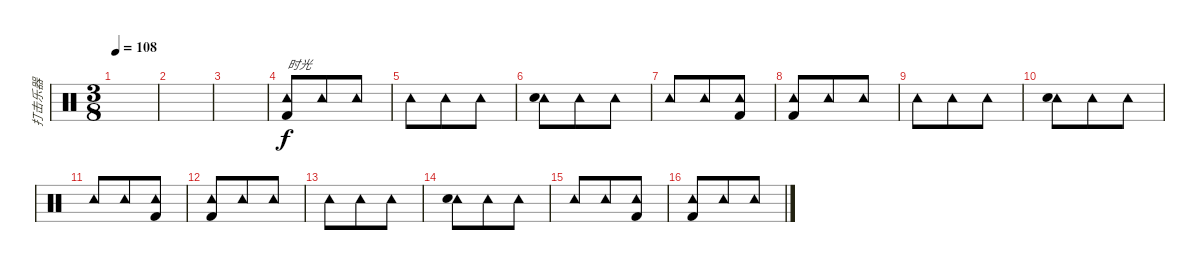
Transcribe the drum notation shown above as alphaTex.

\track ("打击乐器" "打击乐器") {instrument percussion}
\staff {score}
\articulation defaults
\ts (3 8)
\tempo 108
\clef neutral
\ks c
|
|
|
("Tambourine (hit)" "Kick (hit) 2").8{txt "时光"} "Tambourine (hit)".8 "Tambourine (hit)".8 |
"Tambourine (hit)".8 "Tambourine (hit)".8 "Tambourine (hit)".8 |
("Tambourine (hit)" "Snare (hit) 2").8 "Tambourine (hit)".8 "Tambourine (hit)".8 |
"Tambourine (hit)".8 "Tambourine (hit)".8 ("Tambourine (hit)" "Kick (hit) 2").8 |
("Tambourine (hit)" "Kick (hit) 2").8 "Tambourine (hit)".8 "Tambourine (hit)".8 |
"Tambourine (hit)".8 "Tambourine (hit)".8 "Tambourine (hit)".8 |
("Tambourine (hit)" "Snare (hit) 2").8 "Tambourine (hit)".8 "Tambourine (hit)".8 |
"Tambourine (hit)".8 "Tambourine (hit)".8 ("Tambourine (hit)" "Kick (hit) 2").8 |
("Tambourine (hit)" "Kick (hit) 2").8 "Tambourine (hit)".8 "Tambourine (hit)".8 |
"Tambourine (hit)".8 "Tambourine (hit)".8 "Tambourine (hit)".8 |
("Tambourine (hit)" "Snare (hit) 2").8 "Tambourine (hit)".8 "Tambourine (hit)".8 |
"Tambourine (hit)".8 "Tambourine (hit)".8 ("Tambourine (hit)" "Kick (hit) 2").8 |
("Tambourine (hit)" "Kick (hit) 2").8 "Tambourine (hit)".8 "Tambourine (hit)".8
